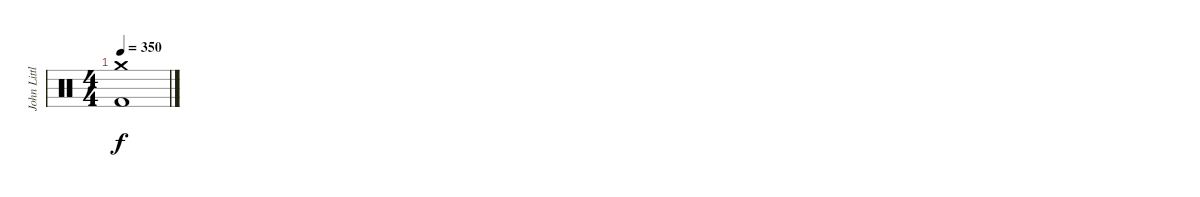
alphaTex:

\track ("John Littler - Drums" "John Littl") {instrument percussion}
\staff {score}
\articulation defaults
\ts (4 4)
\tempo 350
\clef neutral
\ks c
("Crash medium (hit)" "Kick (hit) 2").1{dy f}
